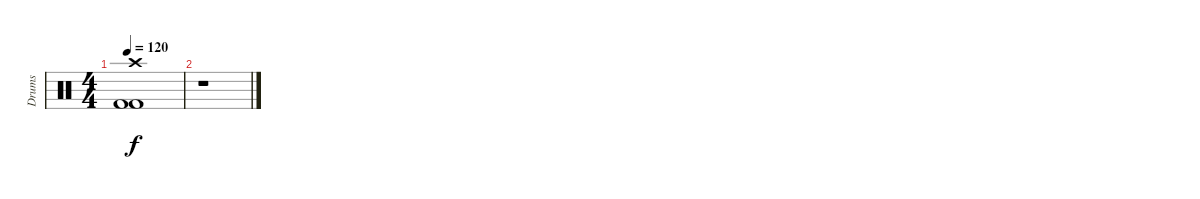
\track ("Drums" "Drums") {instrument percussion}
\staff {score}
\articulation defaults
\ts (4 4)
\tempo 120
\clef neutral
\ks c
("Kick (hit) 2" "Kick (hit) 2" "Crash high (hit)").1{dy f} |
r.1
